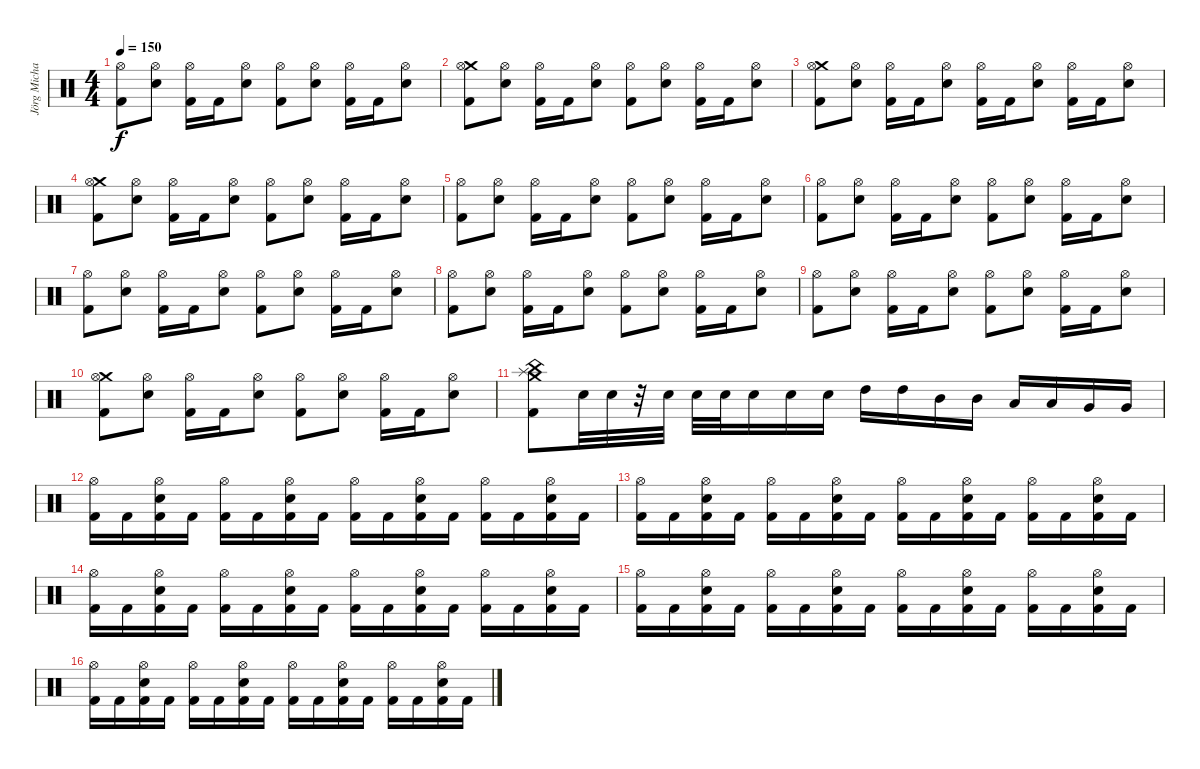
\track ("Jörg Michael (Drums)" "Jörg Micha") {instrument percussion}
\staff {score}
\articulation defaults
\ts (4 4)
\tempo 150
\clef neutral
\ks c
("Hi-Hat (open)" "Kick (hit) 2").8{dy f} ("Hi-Hat (open)" "Electric Snare (hit)").8 ("Hi-Hat (open)" "Kick (hit) 2").16 "Kick (hit) 2".16 ("Hi-Hat (open)" "Electric Snare (hit)").8 ("Hi-Hat (open)" "Kick (hit) 2").8 ("Hi-Hat (open)" "Electric Snare (hit)").8 ("Hi-Hat (open)" "Kick (hit) 2").16 "Kick (hit) 2".16 ("Hi-Hat (open)" "Electric Snare (hit)").8 |
("Crash medium (hit)" "Hi-Hat (open)" "Kick (hit) 2").8 ("Hi-Hat (open)" "Electric Snare (hit)").8 ("Hi-Hat (open)" "Kick (hit) 2").16 "Kick (hit) 2".16 ("Hi-Hat (open)" "Electric Snare (hit)").8 ("Hi-Hat (open)" "Kick (hit) 2").8 ("Hi-Hat (open)" "Electric Snare (hit)").8 ("Hi-Hat (open)" "Kick (hit) 2").16 "Kick (hit) 2".16 ("Hi-Hat (open)" "Electric Snare (hit)").8 |
("Crash medium (hit)" "Hi-Hat (open)" "Kick (hit) 2").8 ("Hi-Hat (open)" "Electric Snare (hit)").8 ("Hi-Hat (open)" "Kick (hit) 2").16 "Kick (hit) 2".16 ("Hi-Hat (open)" "Electric Snare (hit)").8 ("Kick (hit) 2" "Hi-Hat (open)").16 "Kick (hit) 2".16 ("Hi-Hat (open)" "Electric Snare (hit)").8 ("Hi-Hat (open)" "Kick (hit) 2").16 "Kick (hit) 2".16 ("Hi-Hat (open)" "Electric Snare (hit)").8 |
("Crash medium (hit)" "Hi-Hat (open)" "Kick (hit) 2").8 ("Hi-Hat (open)" "Electric Snare (hit)").8 ("Hi-Hat (open)" "Kick (hit) 2").16 "Kick (hit) 2".16 ("Hi-Hat (open)" "Electric Snare (hit)").8 ("Hi-Hat (open)" "Kick (hit) 2").8 ("Hi-Hat (open)" "Electric Snare (hit)").8 ("Hi-Hat (open)" "Kick (hit) 2").16 "Kick (hit) 2".16 ("Hi-Hat (open)" "Electric Snare (hit)").8 |
("Hi-Hat (open)" "Kick (hit) 2").8 ("Hi-Hat (open)" "Electric Snare (hit)").8 ("Hi-Hat (open)" "Kick (hit) 2").16 "Kick (hit) 2".16 ("Hi-Hat (open)" "Electric Snare (hit)").8 ("Hi-Hat (open)" "Kick (hit) 2").8 ("Hi-Hat (open)" "Electric Snare (hit)").8 ("Hi-Hat (open)" "Kick (hit) 2").16 "Kick (hit) 2".16 ("Hi-Hat (open)" "Electric Snare (hit)").8 |
("Hi-Hat (open)" "Kick (hit) 2").8 ("Hi-Hat (open)" "Electric Snare (hit)").8 ("Hi-Hat (open)" "Kick (hit) 2").16 "Kick (hit) 2".16 ("Hi-Hat (open)" "Electric Snare (hit)").8 ("Hi-Hat (open)" "Kick (hit) 2").8 ("Hi-Hat (open)" "Electric Snare (hit)").8 ("Hi-Hat (open)" "Kick (hit) 2").16 "Kick (hit) 2".16 ("Hi-Hat (open)" "Electric Snare (hit)").8 |
("Hi-Hat (open)" "Kick (hit) 2").8 ("Hi-Hat (open)" "Electric Snare (hit)").8 ("Hi-Hat (open)" "Kick (hit) 2").16 "Kick (hit) 2".16 ("Hi-Hat (open)" "Electric Snare (hit)").8 ("Hi-Hat (open)" "Kick (hit) 2").8 ("Hi-Hat (open)" "Electric Snare (hit)").8 ("Hi-Hat (open)" "Kick (hit) 2").16 "Kick (hit) 2".16 ("Hi-Hat (open)" "Electric Snare (hit)").8 |
("Hi-Hat (open)" "Kick (hit) 2").8 ("Hi-Hat (open)" "Electric Snare (hit)").8 ("Hi-Hat (open)" "Kick (hit) 2").16 "Kick (hit) 2".16 ("Hi-Hat (open)" "Electric Snare (hit)").8 ("Hi-Hat (open)" "Kick (hit) 2").8 ("Hi-Hat (open)" "Electric Snare (hit)").8 ("Hi-Hat (open)" "Kick (hit) 2").16 "Kick (hit) 2".16 ("Hi-Hat (open)" "Electric Snare (hit)").8 |
("Hi-Hat (open)" "Kick (hit) 2").8 ("Hi-Hat (open)" "Electric Snare (hit)").8 ("Hi-Hat (open)" "Kick (hit) 2").16 "Kick (hit) 2".16 ("Hi-Hat (open)" "Electric Snare (hit)").8 ("Hi-Hat (open)" "Kick (hit) 2").8 ("Hi-Hat (open)" "Electric Snare (hit)").8 ("Hi-Hat (open)" "Kick (hit) 2").16 "Kick (hit) 2".16 ("Hi-Hat (open)" "Electric Snare (hit)").8 |
("Crash medium (hit)" "Hi-Hat (open)" "Kick (hit) 2").8 ("Hi-Hat (open)" "Electric Snare (hit)").8 ("Hi-Hat (open)" "Kick (hit) 2").16 "Kick (hit) 2".16 ("Hi-Hat (open)" "Electric Snare (hit)").8 ("Hi-Hat (open)" "Kick (hit) 2").8 ("Hi-Hat (open)" "Electric Snare (hit)").8 ("Hi-Hat (open)" "Kick (hit) 2").16 "Kick (hit) 2".16 ("Hi-Hat (open)" "Electric Snare (hit)").8 |
("Splash (hit)" "Crash medium (hit)" "China (hit)" "Kick (hit) 2").8{volume 15} "Electric Snare (hit)".32{volume 4} "Electric Snare (hit)".32{volume 5} r.32 "Electric Snare (hit)".32{volume 6} "Electric Snare (hit)".32{volume 8} "Electric Snare (hit)".32{volume 8} "Electric Snare (hit)".16{volume 9} "Electric Snare (hit)".16{volume 11} "Electric Snare (hit)".16{volume 13} "High Tom (hit)".16{volume 15} "High Tom (hit)".16 "Mid Tom (hit)".16 "Mid Tom (hit)".16 "Low Tom (hit)".16 "Low Tom (hit)".16 "Very Low Tom (hit)".16 "Very Low Tom (hit)".16 |
("Kick (hit) 2" "Hi-Hat (open)").16 "Kick (hit) 2".16 ("Kick (hit) 2" "Electric Snare (hit)" "Hi-Hat (open)").16 "Kick (hit) 2".16 ("Kick (hit) 2" "Hi-Hat (open)").16 "Kick (hit) 2".16 ("Kick (hit) 2" "Electric Snare (hit)" "Hi-Hat (open)").16 "Kick (hit) 2".16 ("Kick (hit) 2" "Hi-Hat (open)").16 "Kick (hit) 2".16 ("Kick (hit) 2" "Electric Snare (hit)" "Hi-Hat (open)").16 "Kick (hit) 2".16 ("Kick (hit) 2" "Hi-Hat (open)").16 "Kick (hit) 2".16 ("Kick (hit) 2" "Electric Snare (hit)" "Hi-Hat (open)").16 "Kick (hit) 2".16 |
("Kick (hit) 2" "Hi-Hat (open)").16 "Kick (hit) 2".16 ("Kick (hit) 2" "Electric Snare (hit)" "Hi-Hat (open)").16 "Kick (hit) 2".16 ("Kick (hit) 2" "Hi-Hat (open)").16 "Kick (hit) 2".16 ("Kick (hit) 2" "Electric Snare (hit)" "Hi-Hat (open)").16 "Kick (hit) 2".16 ("Kick (hit) 2" "Hi-Hat (open)").16 "Kick (hit) 2".16 ("Kick (hit) 2" "Electric Snare (hit)" "Hi-Hat (open)").16 "Kick (hit) 2".16 ("Kick (hit) 2" "Hi-Hat (open)").16 "Kick (hit) 2".16 ("Kick (hit) 2" "Electric Snare (hit)" "Hi-Hat (open)").16 "Kick (hit) 2".16 |
("Kick (hit) 2" "Hi-Hat (open)").16 "Kick (hit) 2".16 ("Kick (hit) 2" "Electric Snare (hit)" "Hi-Hat (open)").16 "Kick (hit) 2".16 ("Kick (hit) 2" "Hi-Hat (open)").16 "Kick (hit) 2".16 ("Kick (hit) 2" "Electric Snare (hit)" "Hi-Hat (open)").16 "Kick (hit) 2".16 ("Kick (hit) 2" "Hi-Hat (open)").16 "Kick (hit) 2".16 ("Kick (hit) 2" "Electric Snare (hit)" "Hi-Hat (open)").16 "Kick (hit) 2".16 ("Kick (hit) 2" "Hi-Hat (open)").16 "Kick (hit) 2".16 ("Kick (hit) 2" "Electric Snare (hit)" "Hi-Hat (open)").16 "Kick (hit) 2".16 |
("Kick (hit) 2" "Hi-Hat (open)").16 "Kick (hit) 2".16 ("Kick (hit) 2" "Electric Snare (hit)" "Hi-Hat (open)").16 "Kick (hit) 2".16 ("Kick (hit) 2" "Hi-Hat (open)").16 "Kick (hit) 2".16 ("Kick (hit) 2" "Electric Snare (hit)" "Hi-Hat (open)").16 "Kick (hit) 2".16 ("Kick (hit) 2" "Hi-Hat (open)").16 "Kick (hit) 2".16 ("Kick (hit) 2" "Electric Snare (hit)" "Hi-Hat (open)").16 "Kick (hit) 2".16 ("Kick (hit) 2" "Hi-Hat (open)").16 "Kick (hit) 2".16 ("Kick (hit) 2" "Electric Snare (hit)" "Hi-Hat (open)").16 "Kick (hit) 2".16 |
("Kick (hit) 2" "Hi-Hat (open)").16 "Kick (hit) 2".16 ("Kick (hit) 2" "Electric Snare (hit)" "Hi-Hat (open)").16 "Kick (hit) 2".16 ("Kick (hit) 2" "Hi-Hat (open)").16 "Kick (hit) 2".16 ("Kick (hit) 2" "Electric Snare (hit)" "Hi-Hat (open)").16 "Kick (hit) 2".16 ("Kick (hit) 2" "Hi-Hat (open)").16 "Kick (hit) 2".16 ("Kick (hit) 2" "Electric Snare (hit)" "Hi-Hat (open)").16 "Kick (hit) 2".16 ("Kick (hit) 2" "Hi-Hat (open)").16 "Kick (hit) 2".16 ("Kick (hit) 2" "Electric Snare (hit)" "Hi-Hat (open)").16 "Kick (hit) 2".16
